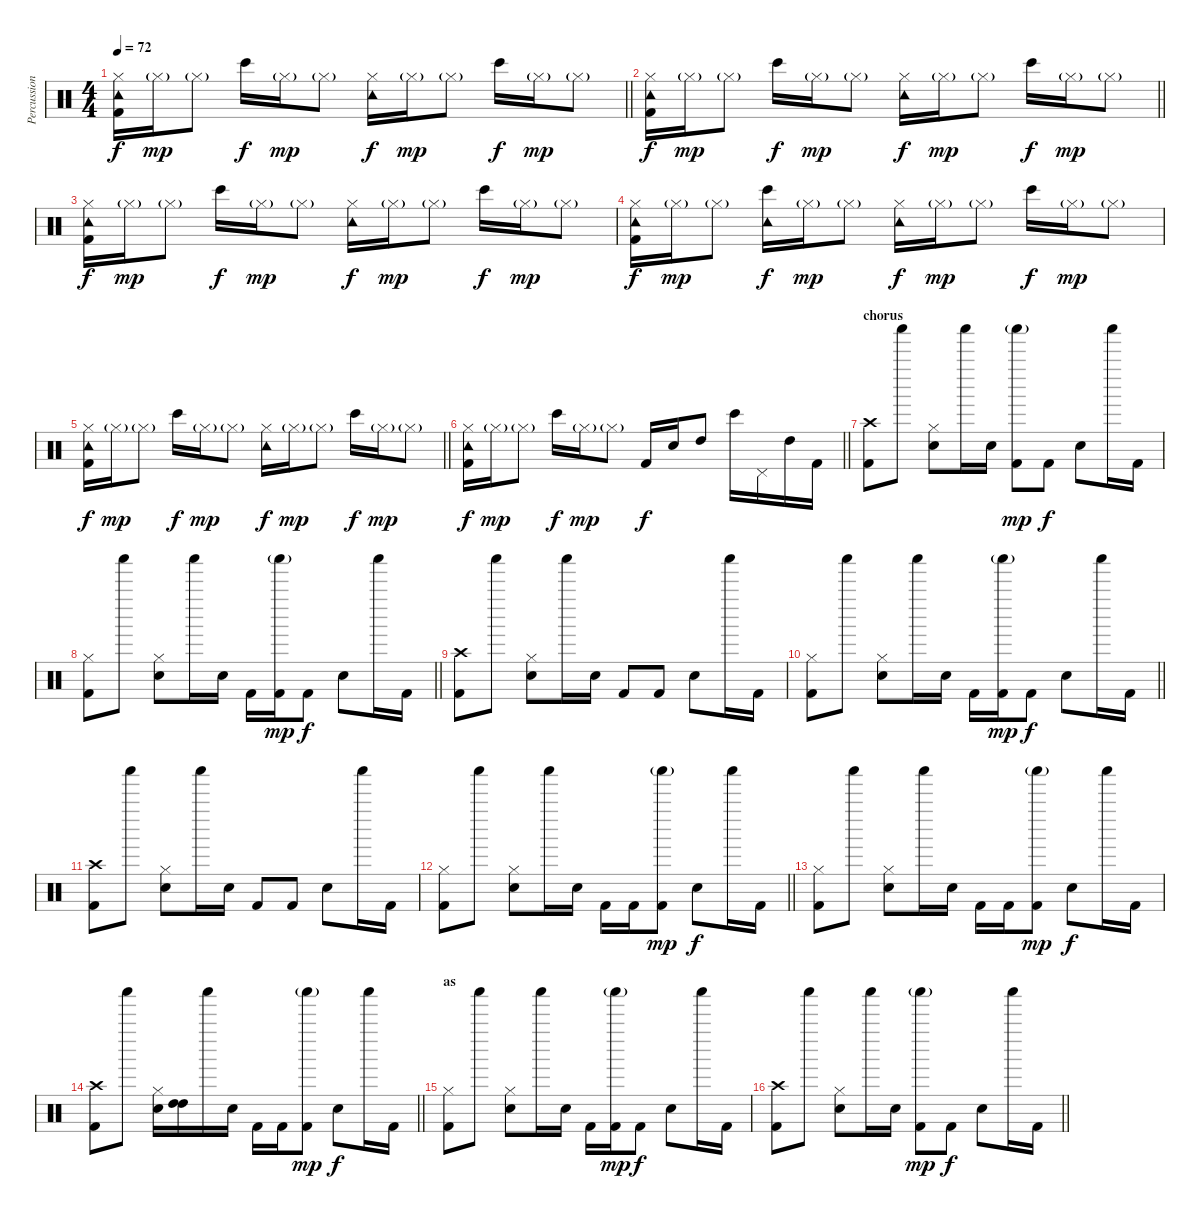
\track ("Percussion" "Percussion") {instrument percussion bank 126}
\staff {score}
\articulation defaults
\ts (4 4)
\tempo 72
\clef neutral
\barLineRight lightlight
\ks c
("Tambourine (hit)" "Kick (hit) 2" "Hi-Hat (closed)").16{dy f} "Hi-Hat (closed)"{g}.16{dy mp} "Hi-Hat (closed)"{g}.8 "Bongo High (hit)".16{dy f} "Hi-Hat (closed)"{g}.16{dy mp} "Hi-Hat (closed)"{g}.8 ("Tambourine (hit)" "Hi-Hat (closed)").16{dy f} "Hi-Hat (closed)"{g}.16{dy mp} "Hi-Hat (closed)"{g}.8 "Bongo High (hit)".16{dy f} "Hi-Hat (closed)"{g}.16{dy mp} "Hi-Hat (closed)"{g}.8 |
\barLineRight lightlight
("Tambourine (hit)" "Kick (hit) 2" "Hi-Hat (closed)").16{dy f} "Hi-Hat (closed)"{g}.16{dy mp} "Hi-Hat (closed)"{g}.8 "Bongo High (hit)".16{dy f} "Hi-Hat (closed)"{g}.16{dy mp} "Hi-Hat (closed)"{g}.8 ("Tambourine (hit)" "Hi-Hat (closed)").16{dy f} "Hi-Hat (closed)"{g}.16{dy mp} "Hi-Hat (closed)"{g}.8 "Bongo High (hit)".16{dy f} "Hi-Hat (closed)"{g}.16{dy mp} "Hi-Hat (closed)"{g}.8 |
("Tambourine (hit)" "Kick (hit) 2" "Hi-Hat (closed)").16{dy f} "Hi-Hat (closed)"{g}.16{dy mp} "Hi-Hat (closed)"{g}.8 "Bongo High (hit)".16{dy f} "Hi-Hat (closed)"{g}.16{dy mp} "Hi-Hat (closed)"{g}.8 ("Tambourine (hit)" "Hi-Hat (closed)").16{dy f} "Hi-Hat (closed)"{g}.16{dy mp} "Hi-Hat (closed)"{g}.8 "Bongo High (hit)".16{dy f} "Hi-Hat (closed)"{g}.16{dy mp} "Hi-Hat (closed)"{g}.8 |
("Tambourine (hit)" "Kick (hit) 2" "Hi-Hat (closed)").16{dy f} "Hi-Hat (closed)"{g}.16{dy mp} "Hi-Hat (closed)"{g}.8 ("Bongo High (hit)" "Tambourine (hit)").16{dy f} "Hi-Hat (closed)"{g}.16{dy mp} "Hi-Hat (closed)"{g}.8 ("Tambourine (hit)" "Hi-Hat (closed)").16{dy f} "Hi-Hat (closed)"{g}.16{dy mp} "Hi-Hat (closed)"{g}.8 "Bongo High (hit)".16{dy f} "Hi-Hat (closed)"{g}.16{dy mp} "Hi-Hat (closed)"{g}.8 |
\barLineRight lightlight
("Tambourine (hit)" "Kick (hit) 2" "Hi-Hat (closed)").16{dy f} "Hi-Hat (closed)"{g}.16{dy mp} "Hi-Hat (closed)"{g}.8 "Bongo High (hit)".16{dy f} "Hi-Hat (closed)"{g}.16{dy mp} "Hi-Hat (closed)"{g}.8 ("Tambourine (hit)" "Hi-Hat (closed)").16{dy f} "Hi-Hat (closed)"{g}.16{dy mp} "Hi-Hat (closed)"{g}.8 "Bongo High (hit)".16{dy f} "Hi-Hat (closed)"{g}.16{dy mp} "Hi-Hat (closed)"{g}.8 |
\barLineRight lightlight
("Tambourine (hit)" "Kick (hit) 2" "Hi-Hat (closed)").16{dy f} "Hi-Hat (closed)"{g}.16{dy mp} "Hi-Hat (closed)"{g}.8 "Bongo High (hit)".16{dy f} "Hi-Hat (closed)"{g}.16{dy mp} "Hi-Hat (closed)"{g}.8 "Kick (hit) 2".16{dy f} "Electric Snare (hit)".16 "High Tom (hit)".8 "Bongo High (hit)".16 "Pedal Hi-Hat (hit)".16 "High Tom (hit)".16 "Kick (hit) 2".16 |
\section ("" "chorus")
("Kick (hit) 2" "Crash high (hit)").8 "Shaker (hit)".8 ("Hi-Hat (closed)" "Electric Snare (hit)").8 "Shaker (hit)".16 "Electric Snare (hit)".16 ("Kick (hit) 2" "Shaker (hit)"{g}).8{dy mp} "Kick (hit) 2".8{dy f} "Electric Snare (hit)".8 "Shaker (hit)".16 "Kick (hit) 2".16 |
\barLineRight lightlight
("Hi-Hat (closed)" "Kick (hit) 2").8 "Shaker (hit)".8 ("Hi-Hat (closed)" "Electric Snare (hit)").8 "Shaker (hit)".16 "Electric Snare (hit)".16 "Kick (hit) 2".16 ("Kick (hit) 2" "Shaker (hit)"{g}).16{dy mp} "Kick (hit) 2".8{dy f} "Electric Snare (hit)".8 "Shaker (hit)".16 "Kick (hit) 2".16 |
("Kick (hit) 2" "Crash high (hit)").8 "Shaker (hit)".8 ("Hi-Hat (closed)" "Electric Snare (hit)").8 "Shaker (hit)".16 "Electric Snare (hit)".16 "Kick (hit) 2".8 "Kick (hit) 2".8 "Electric Snare (hit)".8 "Shaker (hit)".16 "Kick (hit) 2".16 |
\barLineRight lightlight
("Hi-Hat (closed)" "Kick (hit) 2").8 "Shaker (hit)".8 ("Hi-Hat (closed)" "Electric Snare (hit)").8 "Shaker (hit)".16 "Electric Snare (hit)".16 "Kick (hit) 2".16 ("Kick (hit) 2" "Shaker (hit)"{g}).16{dy mp} "Kick (hit) 2".8{dy f} "Electric Snare (hit)".8 "Shaker (hit)".16 "Kick (hit) 2".16 |
("Kick (hit) 2" "Crash high (hit)").8 "Shaker (hit)".8 ("Hi-Hat (closed)" "Electric Snare (hit)").8 "Shaker (hit)".16 "Electric Snare (hit)".16 "Kick (hit) 2".8 "Kick (hit) 2".8 "Electric Snare (hit)".8 "Shaker (hit)".16 "Kick (hit) 2".16 |
\barLineRight lightlight
("Hi-Hat (closed)" "Kick (hit) 2").8 "Shaker (hit)".8 ("Hi-Hat (closed)" "Electric Snare (hit)").8 "Shaker (hit)".16 "Electric Snare (hit)".16 "Kick (hit) 2".16 "Kick (hit) 2".16 ("Kick (hit) 2" "Shaker (hit)"{g}).8{dy mp} "Electric Snare (hit)".8{dy f} "Shaker (hit)".16 "Kick (hit) 2".16 |
("Hi-Hat (closed)" "Kick (hit) 2").8 "Shaker (hit)".8 ("Hi-Hat (closed)" "Electric Snare (hit)").8 "Shaker (hit)".16 "Electric Snare (hit)".16 "Kick (hit) 2".16 "Kick (hit) 2".16 ("Kick (hit) 2" "Shaker (hit)"{g}).8{dy mp} "Electric Snare (hit)".8{dy f} "Shaker (hit)".16 "Kick (hit) 2".16 |
\barLineRight lightlight
("Crash high (hit)" "Kick (hit) 2").8 "Shaker (hit)".8 ("Hi-Hat (closed)" "Electric Snare (hit)").16 ("High Tom (hit)" "High Tom (hit)").16 "Shaker (hit)".16 "Electric Snare (hit)".16 "Kick (hit) 2".16 "Kick (hit) 2".16 ("Kick (hit) 2" "Shaker (hit)"{g}).8{dy mp} "Electric Snare (hit)".8{dy f} "Shaker (hit)".16 "Kick (hit) 2".16 |
\section ("" "as")
("Hi-Hat (closed)" "Kick (hit) 2").8 "Shaker (hit)".8 ("Hi-Hat (closed)" "Electric Snare (hit)").8 "Shaker (hit)".16 "Electric Snare (hit)".16 "Kick (hit) 2".16 ("Kick (hit) 2" "Shaker (hit)"{g}).16{dy mp} "Kick (hit) 2".8{dy f} "Electric Snare (hit)".8 "Shaker (hit)".16 "Kick (hit) 2".16 |
\barLineRight lightlight
("Kick (hit) 2" "Crash high (hit)").8 "Shaker (hit)".8 ("Hi-Hat (closed)" "Electric Snare (hit)").8 "Shaker (hit)".16 "Electric Snare (hit)".16 ("Kick (hit) 2" "Shaker (hit)"{g}).8{dy mp} "Kick (hit) 2".8{dy f} "Electric Snare (hit)".8 "Shaker (hit)".16 "Kick (hit) 2".16
